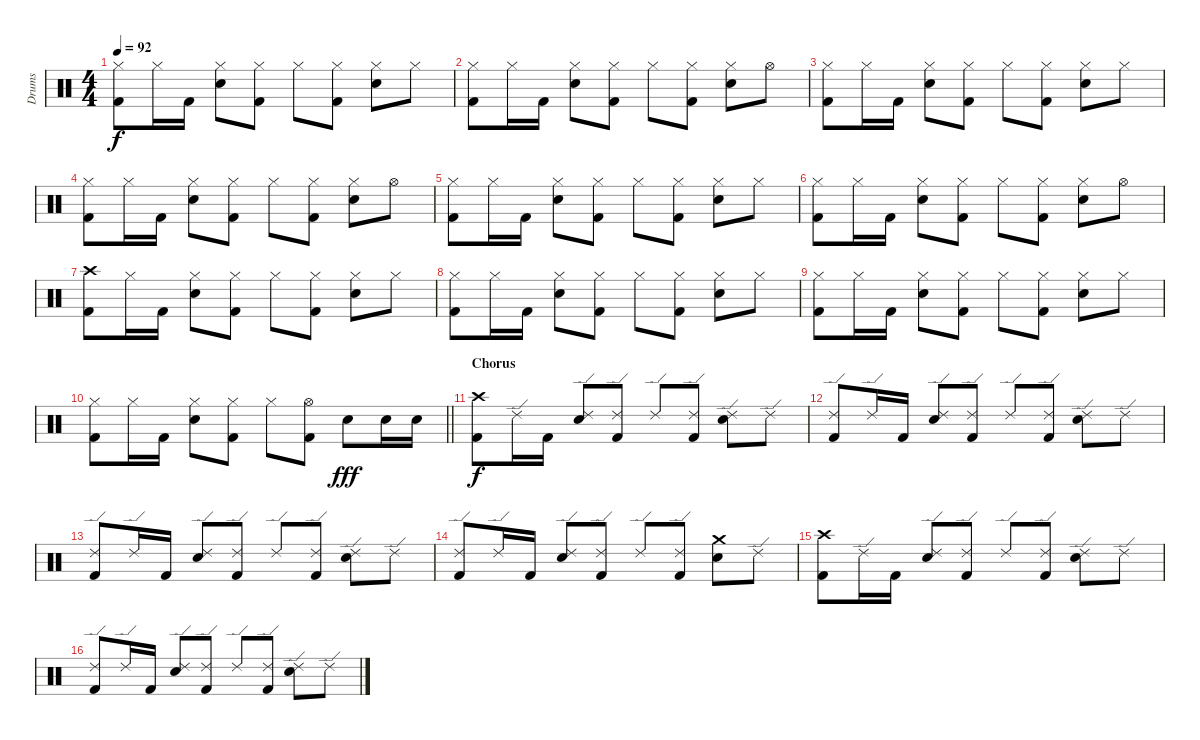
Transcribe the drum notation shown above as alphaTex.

\track ("Drums" "Drums") {instrument percussion}
\staff {score}
\articulation defaults
\ts (4 4)
\tempo 92
\clef neutral
\ks c
("Hi-Hat (closed)" "Kick (hit) 2").8{dy f} "Hi-Hat (closed)".16 "Kick (hit) 2".16 ("Hi-Hat (closed)" "Electric Snare (hit)").8 ("Hi-Hat (closed)" "Kick (hit) 2").8 "Hi-Hat (closed)".8 ("Hi-Hat (closed)" "Kick (hit) 2").8 ("Hi-Hat (closed)" "Electric Snare (hit)").8 "Hi-Hat (closed)".8 |
("Hi-Hat (closed)" "Kick (hit) 2").8 "Hi-Hat (closed)".16 "Kick (hit) 2".16 ("Hi-Hat (closed)" "Electric Snare (hit)").8 ("Hi-Hat (closed)" "Kick (hit) 2").8 "Hi-Hat (closed)".8 ("Hi-Hat (closed)" "Kick (hit) 2").8 ("Hi-Hat (closed)" "Electric Snare (hit)").8 "Hi-Hat (open)".8 |
("Hi-Hat (closed)" "Kick (hit) 2").8 "Hi-Hat (closed)".16 "Kick (hit) 2".16 ("Hi-Hat (closed)" "Electric Snare (hit)").8 ("Hi-Hat (closed)" "Kick (hit) 2").8 "Hi-Hat (closed)".8 ("Hi-Hat (closed)" "Kick (hit) 2").8 ("Hi-Hat (closed)" "Electric Snare (hit)").8 "Hi-Hat (closed)".8 |
("Hi-Hat (closed)" "Kick (hit) 2").8 "Hi-Hat (closed)".16 "Kick (hit) 2".16 ("Hi-Hat (closed)" "Electric Snare (hit)").8 ("Hi-Hat (closed)" "Kick (hit) 2").8 "Hi-Hat (closed)".8 ("Hi-Hat (closed)" "Kick (hit) 2").8 ("Hi-Hat (closed)" "Electric Snare (hit)").8 "Hi-Hat (open)".8 |
("Hi-Hat (closed)" "Kick (hit) 2").8 "Hi-Hat (closed)".16 "Kick (hit) 2".16 ("Hi-Hat (closed)" "Electric Snare (hit)").8 ("Hi-Hat (closed)" "Kick (hit) 2").8 "Hi-Hat (closed)".8 ("Hi-Hat (closed)" "Kick (hit) 2").8 ("Hi-Hat (closed)" "Electric Snare (hit)").8 "Hi-Hat (closed)".8 |
("Hi-Hat (closed)" "Kick (hit) 2").8 "Hi-Hat (closed)".16 "Kick (hit) 2".16 ("Hi-Hat (closed)" "Electric Snare (hit)").8 ("Hi-Hat (closed)" "Kick (hit) 2").8 "Hi-Hat (closed)".8 ("Hi-Hat (closed)" "Kick (hit) 2").8 ("Hi-Hat (closed)" "Electric Snare (hit)").8 "Hi-Hat (open)".8 |
("Crash high (hit)" "Kick (hit) 2").8 "Hi-Hat (closed)".16 "Kick (hit) 2".16 ("Hi-Hat (closed)" "Electric Snare (hit)").8 ("Hi-Hat (closed)" "Kick (hit) 2").8 "Hi-Hat (closed)".8 ("Hi-Hat (closed)" "Kick (hit) 2").8 ("Hi-Hat (closed)" "Electric Snare (hit)").8 "Hi-Hat (closed)".8 |
("Hi-Hat (closed)" "Kick (hit) 2").8 "Hi-Hat (closed)".16 "Kick (hit) 2".16 ("Hi-Hat (closed)" "Electric Snare (hit)").8 ("Hi-Hat (closed)" "Kick (hit) 2").8 "Hi-Hat (closed)".8 ("Hi-Hat (closed)" "Kick (hit) 2").8 ("Hi-Hat (closed)" "Electric Snare (hit)").8 "Hi-Hat (closed)".8 |
("Hi-Hat (closed)" "Kick (hit) 2").8 "Hi-Hat (closed)".16 "Kick (hit) 2".16 ("Hi-Hat (closed)" "Electric Snare (hit)").8 ("Hi-Hat (closed)" "Kick (hit) 2").8 "Hi-Hat (closed)".8 ("Hi-Hat (closed)" "Kick (hit) 2").8 ("Hi-Hat (closed)" "Electric Snare (hit)").8 "Hi-Hat (closed)".8 |
\barLineRight lightlight
("Hi-Hat (closed)" "Kick (hit) 2").8 "Hi-Hat (closed)".16 "Kick (hit) 2".16 ("Hi-Hat (closed)" "Electric Snare (hit)").8 ("Hi-Hat (closed)" "Kick (hit) 2").8 "Hi-Hat (closed)".8 ("Hi-Hat (open)" "Kick (hit) 2").8 "Electric Snare (hit)".8{dy fff} "Electric Snare (hit)".16 "Electric Snare (hit)".16 |
\section ("" "Chorus")
("Crash high (hit)" "Kick (hit) 2").8{dy f} "Ride (edge) 2".16 "Kick (hit) 2".16 ("Ride (edge) 2" "Electric Snare (hit)").8 ("Ride (edge) 2" "Kick (hit) 2").8 "Ride (edge) 2".8 ("Ride (edge) 2" "Kick (hit) 2").8 ("Ride (edge) 2" "Electric Snare (hit)").8 "Ride (edge) 2".8 |
("Ride (edge) 2" "Kick (hit) 2").8 "Ride (edge) 2".16 "Kick (hit) 2".16 ("Ride (edge) 2" "Electric Snare (hit)").8 ("Ride (edge) 2" "Kick (hit) 2").8 "Ride (edge) 2".8 ("Ride (edge) 2" "Kick (hit) 2").8 ("Ride (edge) 2" "Electric Snare (hit)").8 "Ride (edge) 2".8 |
("Ride (edge) 2" "Kick (hit) 2").8 "Ride (edge) 2".16 "Kick (hit) 2".16 ("Ride (edge) 2" "Electric Snare (hit)").8 ("Ride (edge) 2" "Kick (hit) 2").8 "Ride (edge) 2".8 ("Ride (edge) 2" "Kick (hit) 2").8 ("Ride (edge) 2" "Electric Snare (hit)").8 "Ride (edge) 2".8 |
("Ride (edge) 2" "Kick (hit) 2").8 "Ride (edge) 2".16 "Kick (hit) 2".16 ("Ride (edge) 2" "Electric Snare (hit)").8 ("Ride (edge) 2" "Kick (hit) 2").8 "Ride (edge) 2".8 ("Ride (edge) 2" "Kick (hit) 2").8 ("Crash medium (hit)" "Electric Snare (hit)").8 "Ride (edge) 2".8 |
("Crash high (hit)" "Kick (hit) 2").8 "Ride (edge) 2".16 "Kick (hit) 2".16 ("Ride (edge) 2" "Electric Snare (hit)").8 ("Ride (edge) 2" "Kick (hit) 2").8 "Ride (edge) 2".8 ("Ride (edge) 2" "Kick (hit) 2").8 ("Ride (edge) 2" "Electric Snare (hit)").8 "Ride (edge) 2".8 |
("Ride (edge) 2" "Kick (hit) 2").8 "Ride (edge) 2".16 "Kick (hit) 2".16 ("Ride (edge) 2" "Electric Snare (hit)").8 ("Ride (edge) 2" "Kick (hit) 2").8 "Ride (edge) 2".8 ("Ride (edge) 2" "Kick (hit) 2").8 ("Ride (edge) 2" "Electric Snare (hit)").8 "Ride (edge) 2".8
